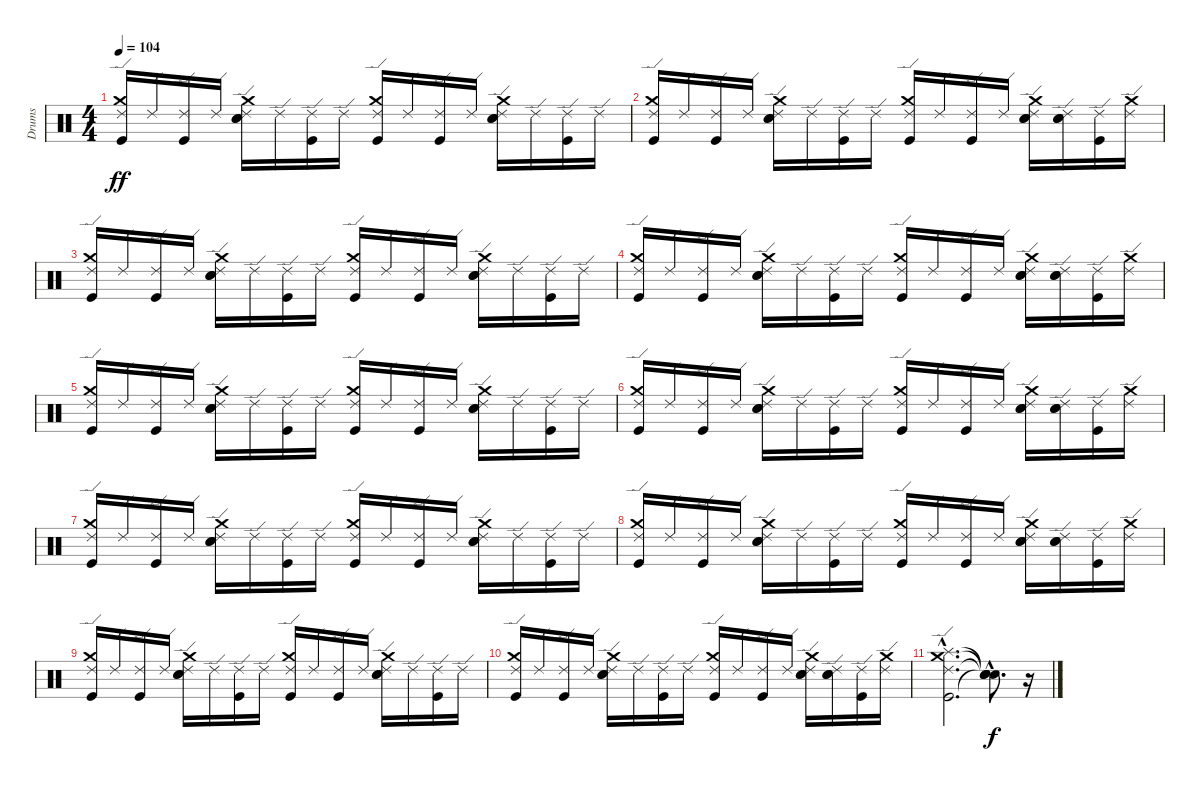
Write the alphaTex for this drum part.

\track ("Drums" "Drums") {instrument percussion}
\staff {score}
\articulation defaults
\ts (4 4)
\tempo 104
\clef neutral
\ks c
("Kick (hit)" "Crash medium (hit)" "Ride (edge) 2").16{dy ff} "Ride (edge) 2".16 ("Kick (hit)" "Ride (edge) 2").16 "Ride (edge) 2".16 ("Snare (hit) 2" "Electric Snare (hit)" "Crash medium (hit)" "Ride (edge) 2").16 "Ride (edge) 2".16 ("Kick (hit)" "Ride (edge) 2").16 "Ride (edge) 2".16 ("Kick (hit)" "Crash medium (hit)" "Ride (edge) 2").16 "Ride (edge) 2".16 ("Kick (hit)" "Ride (edge) 2").16 "Ride (edge) 2".16 ("Snare (hit) 2" "Electric Snare (hit)" "Crash medium (hit)" "Ride (edge) 2").16 "Ride (edge) 2".16 ("Kick (hit)" "Ride (edge) 2").16 "Ride (edge) 2".16 |
("Kick (hit)" "Crash medium (hit)" "Ride (edge) 2").16 "Ride (edge) 2".16 ("Kick (hit)" "Ride (edge) 2").16 "Ride (edge) 2".16 ("Snare (hit) 2" "Electric Snare (hit)" "Crash medium (hit)" "Ride (edge) 2").16 "Ride (edge) 2".16 ("Kick (hit)" "Ride (edge) 2").16 "Ride (edge) 2".16 ("Kick (hit)" "Crash medium (hit)" "Ride (edge) 2").16 "Ride (edge) 2".16 ("Kick (hit)" "Ride (edge) 2").16 "Ride (edge) 2".16 ("Snare (hit) 2" "Electric Snare (hit)" "Crash medium (hit)" "Ride (edge) 2").16 ("Snare (hit) 2" "Electric Snare (hit)" "Ride (edge) 2").16 ("Kick (hit)" "Ride (edge) 2").16 ("Crash medium (hit)" "Ride (edge) 2").16 |
("Kick (hit)" "Crash medium (hit)" "Ride (edge) 2").16 "Ride (edge) 2".16 ("Kick (hit)" "Ride (edge) 2").16 "Ride (edge) 2".16 ("Snare (hit) 2" "Electric Snare (hit)" "Crash medium (hit)" "Ride (edge) 2").16 "Ride (edge) 2".16 ("Kick (hit)" "Ride (edge) 2").16 "Ride (edge) 2".16 ("Kick (hit)" "Crash medium (hit)" "Ride (edge) 2").16 "Ride (edge) 2".16 ("Kick (hit)" "Ride (edge) 2").16 "Ride (edge) 2".16 ("Snare (hit) 2" "Electric Snare (hit)" "Crash medium (hit)" "Ride (edge) 2").16 "Ride (edge) 2".16 ("Kick (hit)" "Ride (edge) 2").16 "Ride (edge) 2".16 |
("Kick (hit)" "Crash medium (hit)" "Ride (edge) 2").16 "Ride (edge) 2".16 ("Kick (hit)" "Ride (edge) 2").16 "Ride (edge) 2".16 ("Snare (hit) 2" "Electric Snare (hit)" "Crash medium (hit)" "Ride (edge) 2").16 "Ride (edge) 2".16 ("Kick (hit)" "Ride (edge) 2").16 "Ride (edge) 2".16 ("Kick (hit)" "Crash medium (hit)" "Ride (edge) 2").16 "Ride (edge) 2".16 ("Kick (hit)" "Ride (edge) 2").16 "Ride (edge) 2".16 ("Snare (hit) 2" "Electric Snare (hit)" "Crash medium (hit)" "Ride (edge) 2").16 ("Snare (hit) 2" "Electric Snare (hit)" "Ride (edge) 2").16 ("Kick (hit)" "Ride (edge) 2").16 ("Crash medium (hit)" "Ride (edge) 2").16 |
("Kick (hit)" "Crash medium (hit)" "Ride (edge) 2").16 "Ride (edge) 2".16 ("Kick (hit)" "Ride (edge) 2").16 "Ride (edge) 2".16 ("Snare (hit) 2" "Electric Snare (hit)" "Crash medium (hit)" "Ride (edge) 2").16 "Ride (edge) 2".16 ("Kick (hit)" "Ride (edge) 2").16 "Ride (edge) 2".16 ("Kick (hit)" "Crash medium (hit)" "Ride (edge) 2").16 "Ride (edge) 2".16 ("Kick (hit)" "Ride (edge) 2").16 "Ride (edge) 2".16 ("Snare (hit) 2" "Electric Snare (hit)" "Crash medium (hit)" "Ride (edge) 2").16 "Ride (edge) 2".16 ("Kick (hit)" "Ride (edge) 2").16 "Ride (edge) 2".16 |
("Kick (hit)" "Crash medium (hit)" "Ride (edge) 2").16 "Ride (edge) 2".16 ("Kick (hit)" "Ride (edge) 2").16 "Ride (edge) 2".16 ("Snare (hit) 2" "Electric Snare (hit)" "Crash medium (hit)" "Ride (edge) 2").16 "Ride (edge) 2".16 ("Kick (hit)" "Ride (edge) 2").16 "Ride (edge) 2".16 ("Kick (hit)" "Crash medium (hit)" "Ride (edge) 2").16 "Ride (edge) 2".16 ("Kick (hit)" "Ride (edge) 2").16 "Ride (edge) 2".16 ("Snare (hit) 2" "Electric Snare (hit)" "Crash medium (hit)" "Ride (edge) 2").16 ("Snare (hit) 2" "Electric Snare (hit)" "Ride (edge) 2").16 ("Kick (hit)" "Ride (edge) 2").16 ("Crash medium (hit)" "Ride (edge) 2").16 |
("Kick (hit)" "Crash medium (hit)" "Ride (edge) 2").16 "Ride (edge) 2".16 ("Kick (hit)" "Ride (edge) 2").16 "Ride (edge) 2".16 ("Snare (hit) 2" "Electric Snare (hit)" "Crash medium (hit)" "Ride (edge) 2").16 "Ride (edge) 2".16 ("Kick (hit)" "Ride (edge) 2").16 "Ride (edge) 2".16 ("Kick (hit)" "Crash medium (hit)" "Ride (edge) 2").16 "Ride (edge) 2".16 ("Kick (hit)" "Ride (edge) 2").16 "Ride (edge) 2".16 ("Snare (hit) 2" "Electric Snare (hit)" "Crash medium (hit)" "Ride (edge) 2").16 "Ride (edge) 2".16 ("Kick (hit)" "Ride (edge) 2").16 "Ride (edge) 2".16 |
("Kick (hit)" "Crash medium (hit)" "Ride (edge) 2").16 "Ride (edge) 2".16 ("Kick (hit)" "Ride (edge) 2").16 "Ride (edge) 2".16 ("Snare (hit) 2" "Electric Snare (hit)" "Crash medium (hit)" "Ride (edge) 2").16 "Ride (edge) 2".16 ("Kick (hit)" "Ride (edge) 2").16 "Ride (edge) 2".16 ("Kick (hit)" "Crash medium (hit)" "Ride (edge) 2").16 "Ride (edge) 2".16 ("Kick (hit)" "Ride (edge) 2").16 "Ride (edge) 2".16 ("Snare (hit) 2" "Electric Snare (hit)" "Crash medium (hit)" "Ride (edge) 2").16 ("Snare (hit) 2" "Electric Snare (hit)" "Ride (edge) 2").16 ("Kick (hit)" "Ride (edge) 2").16 ("Crash medium (hit)" "Ride (edge) 2").16 |
("Kick (hit)" "Crash medium (hit)" "Ride (edge) 2").16 "Ride (edge) 2".16 ("Kick (hit)" "Ride (edge) 2").16 "Ride (edge) 2".16 ("Snare (hit) 2" "Electric Snare (hit)" "Crash medium (hit)" "Ride (edge) 2").16 "Ride (edge) 2".16 ("Kick (hit)" "Ride (edge) 2").16 "Ride (edge) 2".16 ("Kick (hit)" "Crash medium (hit)" "Ride (edge) 2").16 "Ride (edge) 2".16 ("Kick (hit)" "Ride (edge) 2").16 "Ride (edge) 2".16 ("Snare (hit) 2" "Electric Snare (hit)" "Crash medium (hit)" "Ride (edge) 2").16 "Ride (edge) 2".16 ("Kick (hit)" "Ride (edge) 2").16 "Ride (edge) 2".16 |
("Kick (hit)" "Crash medium (hit)" "Ride (edge) 2").16 "Ride (edge) 2".16 ("Kick (hit)" "Ride (edge) 2").16 "Ride (edge) 2".16 ("Snare (hit) 2" "Electric Snare (hit)" "Crash medium (hit)" "Ride (edge) 2").16 "Ride (edge) 2".16 ("Kick (hit)" "Ride (edge) 2").16 "Ride (edge) 2".16 ("Kick (hit)" "Crash medium (hit)" "Ride (edge) 2").16 "Ride (edge) 2".16 ("Kick (hit)" "Ride (edge) 2").16 "Ride (edge) 2".16 ("Snare (hit) 2" "Electric Snare (hit)" "Crash medium (hit)" "Ride (edge) 2").16 ("Snare (hit) 2" "Electric Snare (hit)" "Ride (edge) 2").16 ("Kick (hit)" "Ride (edge) 2").16 ("Crash medium (hit)" "Ride (edge) 2").16 |
("Kick (hit)"{hac} "Splash (hit)"{hac} "Crash medium (hit)"{hac} "Ride (edge) 2"{hac}).2{d} ("Snare (hit)"{hac t} "Snare (hit)"{hac t} "Snare (hit)"{hac t} "Snare (hit)"{hac t}).8{d dy f} r.16
